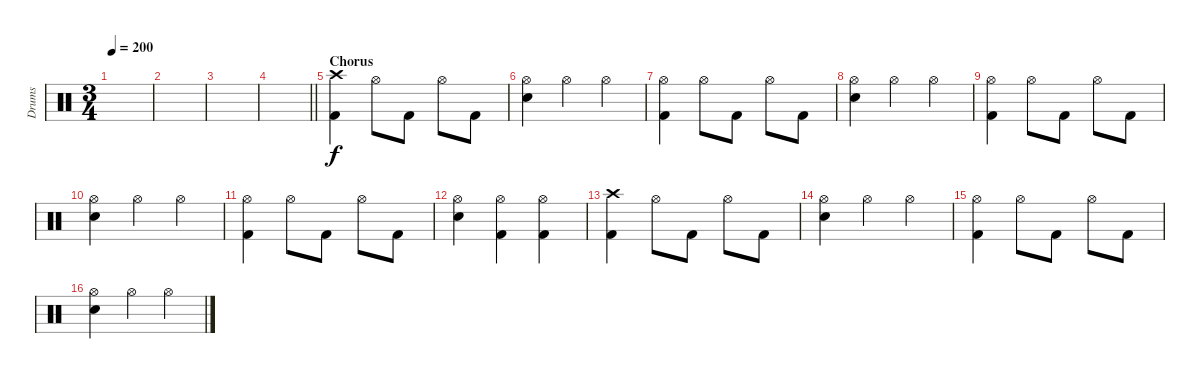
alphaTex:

\track ("Drums" "Drums") {instrument percussion}
\staff {score}
\articulation defaults
\ts (3 4)
\tempo 200
\clef neutral
\ks c
|
|
|
\barLineRight lightlight
|
\section ("" "Chorus")
("Crash high (hit)" "Kick (hit) 2").4 "Hi-Hat (open)".8 "Kick (hit) 2".8 "Hi-Hat (open)".8 "Kick (hit) 2".8 |
("Hi-Hat (open)" "Electric Snare (hit)").4 "Hi-Hat (open)".4 "Hi-Hat (open)".4 |
("Hi-Hat (open)" "Kick (hit) 2").4 "Hi-Hat (open)".8 "Kick (hit) 2".8 "Hi-Hat (open)".8 "Kick (hit) 2".8 |
("Hi-Hat (open)" "Electric Snare (hit)").4 "Hi-Hat (open)".4 "Hi-Hat (open)".4 |
("Hi-Hat (open)" "Kick (hit) 2").4 "Hi-Hat (open)".8 "Kick (hit) 2".8 "Hi-Hat (open)".8 "Kick (hit) 2".8 |
("Hi-Hat (open)" "Electric Snare (hit)").4 "Hi-Hat (open)".4 "Hi-Hat (open)".4 |
("Hi-Hat (open)" "Kick (hit) 2").4 "Hi-Hat (open)".8 "Kick (hit) 2".8 "Hi-Hat (open)".8 "Kick (hit) 2".8 |
("Hi-Hat (open)" "Electric Snare (hit)").4 ("Hi-Hat (open)" "Kick (hit) 2").4 ("Hi-Hat (open)" "Kick (hit) 2").4 |
("Crash high (hit)" "Kick (hit) 2").4 "Hi-Hat (open)".8 "Kick (hit) 2".8 "Hi-Hat (open)".8 "Kick (hit) 2".8 |
("Hi-Hat (open)" "Electric Snare (hit)").4 "Hi-Hat (open)".4 "Hi-Hat (open)".4 |
("Hi-Hat (open)" "Kick (hit) 2").4 "Hi-Hat (open)".8 "Kick (hit) 2".8 "Hi-Hat (open)".8 "Kick (hit) 2".8 |
("Hi-Hat (open)" "Electric Snare (hit)").4 "Hi-Hat (open)".4 "Hi-Hat (open)".4
